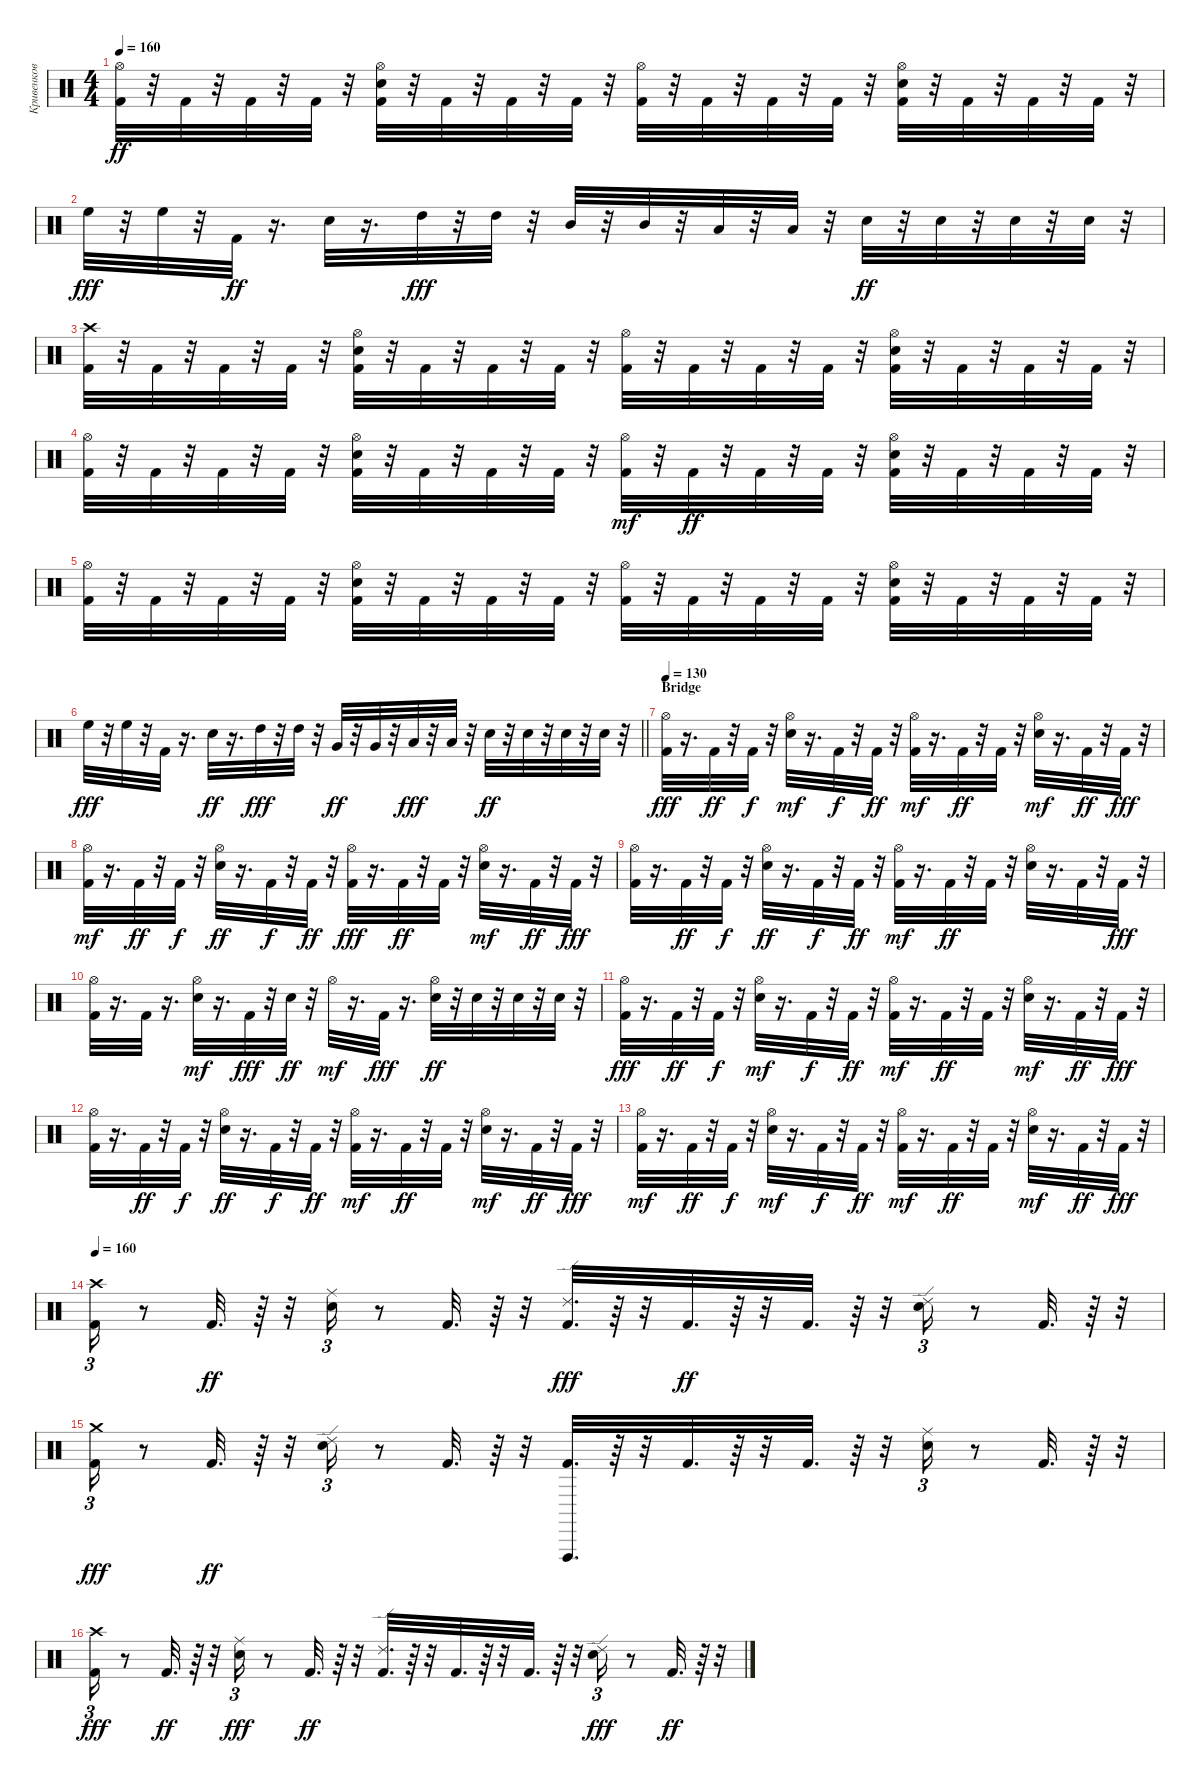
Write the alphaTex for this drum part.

\track ("Кривенков" "Кривенков") {instrument percussion}
\staff {score}
\articulation defaults
\ts (4 4)
\tempo 160
\clef neutral
\ks c
("Hi-Hat (open)" "Kick (hit) 2").32{dy ff} r.32 "Kick (hit) 2".32 r.32 "Kick (hit) 2".32 r.32 "Kick (hit) 2".32 r.32 ("Hi-Hat (open)" "Electric Snare (hit)" "Kick (hit) 2").32 r.32 "Kick (hit) 2".32 r.32 "Kick (hit) 2".32 r.32 "Kick (hit) 2".32 r.32 ("Hi-Hat (open)" "Kick (hit) 2").32 r.32 "Kick (hit) 2".32 r.32 "Kick (hit) 2".32 r.32 "Kick (hit) 2".32 r.32 ("Electric Snare (hit)" "Hi-Hat (open)" "Kick (hit) 2").32 r.32 "Kick (hit) 2".32 r.32 "Kick (hit) 2".32 r.32 "Kick (hit) 2".32 r.32 |
"High Floor Tom (hit)".32{dy fff} r.32 "High Floor Tom (hit)".32 r.32 "Kick (hit) 2".32{dy ff} r.16{d} "Electric Snare (hit)".32 r.16{d} "High Tom (hit)".32{dy fff} r.32 "High Tom (hit)".32 r.32 "Mid Tom (hit)".32 r.32 "Mid Tom (hit)".32 r.32 "Low Tom (hit)".32 r.32 "Low Tom (hit)".32 r.32 "Electric Snare (hit)".32{dy ff} r.32 "Electric Snare (hit)".32 r.32 "Electric Snare (hit)".32 r.32 "Electric Snare (hit)".32 r.32 |
("Crash high (hit)" "Kick (hit) 2").32 r.32 "Kick (hit) 2".32 r.32 "Kick (hit) 2".32 r.32 "Kick (hit) 2".32 r.32 ("Kick (hit) 2" "Hi-Hat (open)" "Electric Snare (hit)").32 r.32 "Kick (hit) 2".32 r.32 "Kick (hit) 2".32 r.32 "Kick (hit) 2".32 r.32 ("Hi-Hat (open)" "Kick (hit) 2").32 r.32 "Kick (hit) 2".32 r.32 "Kick (hit) 2".32 r.32 "Kick (hit) 2".32 r.32 ("Hi-Hat (open)" "Electric Snare (hit)" "Kick (hit) 2").32 r.32 "Kick (hit) 2".32 r.32 "Kick (hit) 2".32 r.32 "Kick (hit) 2".32 r.32 |
("Hi-Hat (open)" "Kick (hit) 2").32 r.32 "Kick (hit) 2".32 r.32 "Kick (hit) 2".32 r.32 "Kick (hit) 2".32 r.32 ("Electric Snare (hit)" "Hi-Hat (open)" "Kick (hit) 2").32 r.32 "Kick (hit) 2".32 r.32 "Kick (hit) 2".32 r.32 "Kick (hit) 2".32 r.32 ("Kick (hit) 2" "Hi-Hat (open)").32{dy mf} r.32 "Kick (hit) 2".32{dy ff} r.32 "Kick (hit) 2".32 r.32 "Kick (hit) 2".32 r.32 ("Hi-Hat (open)" "Kick (hit) 2" "Electric Snare (hit)").32 r.32 "Kick (hit) 2".32 r.32 "Kick (hit) 2".32 r.32 "Kick (hit) 2".32 r.32 |
("Hi-Hat (open)" "Kick (hit) 2").32 r.32 "Kick (hit) 2".32 r.32 "Kick (hit) 2".32 r.32 "Kick (hit) 2".32 r.32 ("Hi-Hat (open)" "Electric Snare (hit)" "Kick (hit) 2").32 r.32 "Kick (hit) 2".32 r.32 "Kick (hit) 2".32 r.32 "Kick (hit) 2".32 r.32 ("Hi-Hat (open)" "Kick (hit) 2").32 r.32 "Kick (hit) 2".32 r.32 "Kick (hit) 2".32 r.32 "Kick (hit) 2".32 r.32 ("Hi-Hat (open)" "Electric Snare (hit)" "Kick (hit) 2").32 r.32 "Kick (hit) 2".32 r.32 "Kick (hit) 2".32 r.32 "Kick (hit) 2".32 r.32 |
\barLineRight lightlight "High Floor Tom (hit)".32{dy fff}
r.32 "High Floor Tom (hit)".32 r.32 "Kick (hit) 2".32 r.16{d} "Electric Snare (hit)".32{dy ff} r.16{d} "High Tom (hit)".32{dy fff} r.32 "High Tom (hit)".32 r.32 "Very Low Tom (hit)".32{dy ff} r.32 "Very Low Tom (hit)".32 r.32 "Low Tom (hit)".32{dy fff} r.32 "Low Tom (hit)".32 r.32 "Electric Snare (hit)".32{dy ff} r.32 "Electric Snare (hit)".32 r.32 "Electric Snare (hit)".32 r.32 "Electric Snare (hit)".32 r.32 |
\section ("" "Bridge")
\tempo 130
("Hi-Hat (open)" "Kick (hit) 2").32{dy fff} r.16{d} "Kick (hit) 2".32{dy ff} r.32 "Kick (hit) 2".32{dy f} r.32 ("Electric Snare (hit)" "Hi-Hat (open)").32{dy mf} r.16{d} "Kick (hit) 2".32{dy f} r.32 "Kick (hit) 2".32{dy ff} r.32 ("Kick (hit) 2" "Hi-Hat (open)").32{dy mf} r.16{d} "Kick (hit) 2".32{dy ff} r.32 "Kick (hit) 2".32 r.32 ("Electric Snare (hit)" "Hi-Hat (open)").32{dy mf} r.16{d} "Kick (hit) 2".32{dy ff} r.32 "Kick (hit) 2".32{dy fff} r.32 |
("Kick (hit) 2" "Hi-Hat (open)").32{dy mf} r.16{d} "Kick (hit) 2".32{dy ff} r.32 "Kick (hit) 2".32{dy f} r.32 ("Hi-Hat (open)" "Electric Snare (hit)").32{dy ff} r.16{d} "Kick (hit) 2".32{dy f} r.32 "Kick (hit) 2".32{dy ff} r.32 ("Hi-Hat (open)" "Kick (hit) 2").32{dy fff} r.16{d} "Kick (hit) 2".32{dy ff} r.32 "Kick (hit) 2".32 r.32 ("Electric Snare (hit)" "Hi-Hat (open)").32{dy mf} r.16{d} "Kick (hit) 2".32{dy ff} r.32 "Kick (hit) 2".32{dy fff} r.32 |
("Hi-Hat (open)" "Kick (hit) 2").32 r.16{d} "Kick (hit) 2".32{dy ff} r.32 "Kick (hit) 2".32{dy f} r.32 ("Hi-Hat (open)" "Electric Snare (hit)").32{dy ff} r.16{d} "Kick (hit) 2".32{dy f} r.32 "Kick (hit) 2".32{dy ff} r.32 ("Kick (hit) 2" "Hi-Hat (open)").32{dy mf} r.16{d} "Kick (hit) 2".32{dy ff} r.32 "Kick (hit) 2".32 r.32 ("Hi-Hat (open)" "Electric Snare (hit)").32 r.16{d} "Kick (hit) 2".32 r.32 "Kick (hit) 2".32{dy fff} r.32 |
("Hi-Hat (open)" "Kick (hit) 2").32 r.16{d} "Kick (hit) 2".32 r.16{d} ("Electric Snare (hit)" "Hi-Hat (open)").32{dy mf} r.16{d} "Kick (hit) 2".32{dy fff} r.32 "Electric Snare (hit)".32{dy ff} r.32 "Hi-Hat (open)".32{dy mf} r.16{d} "Kick (hit) 2".32{dy fff} r.16{d} ("Hi-Hat (open)" "Electric Snare (hit)").32{dy ff} r.32 "Electric Snare (hit)".32 r.32 "Electric Snare (hit)".32 r.32 "Electric Snare (hit)".32 r.32 |
("Hi-Hat (open)" "Kick (hit) 2").32{dy fff} r.16{d} "Kick (hit) 2".32{dy ff} r.32 "Kick (hit) 2".32{dy f} r.32 ("Electric Snare (hit)" "Hi-Hat (open)").32{dy mf} r.16{d} "Kick (hit) 2".32{dy f} r.32 "Kick (hit) 2".32{dy ff} r.32 ("Kick (hit) 2" "Hi-Hat (open)").32{dy mf} r.16{d} "Kick (hit) 2".32{dy ff} r.32 "Kick (hit) 2".32 r.32 ("Electric Snare (hit)" "Hi-Hat (open)").32{dy mf} r.16{d} "Kick (hit) 2".32{dy ff} r.32 "Kick (hit) 2".32{dy fff} r.32 |
("Hi-Hat (open)" "Kick (hit) 2").32 r.16{d} "Kick (hit) 2".32{dy ff} r.32 "Kick (hit) 2".32{dy f} r.32 ("Hi-Hat (open)" "Electric Snare (hit)").32{dy ff} r.16{d} "Kick (hit) 2".32{dy f} r.32 "Kick (hit) 2".32{dy ff} r.32 ("Kick (hit) 2" "Hi-Hat (open)").32{dy mf} r.16{d} "Kick (hit) 2".32{dy ff} r.32 "Kick (hit) 2".32 r.32 ("Electric Snare (hit)" "Hi-Hat (open)").32{dy mf} r.16{d} "Kick (hit) 2".32{dy ff} r.32 "Kick (hit) 2".32{dy fff} r.32 |
("Kick (hit) 2" "Hi-Hat (open)").32{dy mf} r.16{d} "Kick (hit) 2".32{dy ff} r.32 "Kick (hit) 2".32{dy f} r.32 ("Electric Snare (hit)" "Hi-Hat (open)").32{dy mf} r.16{d} "Kick (hit) 2".32{dy f} r.32 "Kick (hit) 2".32{dy ff} r.32 ("Kick (hit) 2" "Hi-Hat (open)").32{dy mf} r.16{d} "Kick (hit) 2".32{dy ff} r.32 "Kick (hit) 2".32 r.32 ("Electric Snare (hit)" "Hi-Hat (open)").32{dy mf} r.16{d} "Kick (hit) 2".32{dy ff} r.32 "Kick (hit) 2".32{dy fff} r.32 |
\tempo 160
("Crash high (hit)" "Kick (hit) 2").16{tu (3 2)} r.8 "Kick (hit) 2".32{d dy ff} r.64 r.32 ("Ride (middle)" "Electric Snare (hit)").16{tu (3 2)} r.8 "Kick (hit) 2".32{d} r.64 r.32 ("Kick (hit) 2" "Ride (edge) 2").32{d dy fff} r.64 r.32 "Kick (hit) 2".32{d dy ff} r.64 r.32 "Kick (hit) 2".32{d} r.64 r.32 ("Ride (edge) 2" "Electric Snare (hit)").16{tu (3 2)} r.8 "Kick (hit) 2".32{d} r.64 r.32 |
("Kick (hit) 2" "Crash medium (hit)").16{tu (3 2) dy fff} r.8 "Kick (hit) 2".32{d dy ff} r.64 r.32 ("Ride (edge) 2" "Electric Snare (hit)").16{tu (3 2)} r.8 "Kick (hit) 2".32{d} r.64 r.32 ("Vibraslap (hit)" "Kick (hit) 2").32{d} r.64 r.32 "Kick (hit) 2".32{d} r.64 r.32 "Kick (hit) 2".32{d} r.64 r.32 ("Ride (middle)" "Electric Snare (hit)").16{tu (3 2)} r.8 "Kick (hit) 2".32{d} r.64 r.32 |
("Crash high (hit)" "Kick (hit) 2").16{tu (3 2) dy fff} r.8 "Kick (hit) 2".32{d dy ff} r.64 r.32 ("Electric Snare (hit)" "Ride (middle)").16{tu (3 2) dy fff} r.8 "Kick (hit) 2".32{d dy ff} r.64 r.32 ("Ride (edge) 2" "Kick (hit) 2").32{d} r.64 r.32 "Kick (hit) 2".32{d} r.64 r.32 "Kick (hit) 2".32{d} r.64 r.32 ("Electric Snare (hit)" "Ride (edge) 2").16{tu (3 2) dy fff} r.8 "Kick (hit) 2".32{d dy ff} r.64 r.32
